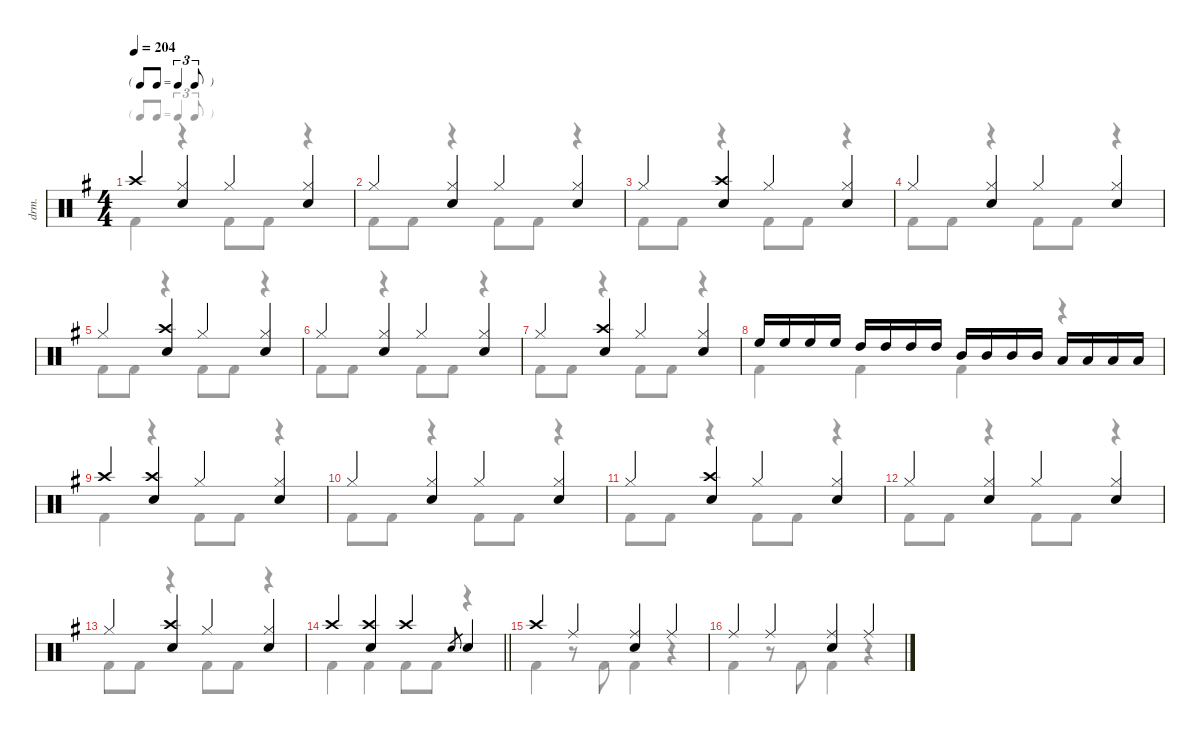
\defaultSystemsLayout 4
\hideDynamics
\bracketExtendMode nobrackets
\otherSystemsTrackNameOrientation horizontal
\track ("Lars Ulrich" "drm.") {defaultSystemsLayout 8 instrument percussion}
\staff {score}
\articulation defaults
\voice
\ts (4 4)
\tf triplet8th
\tempo 204
\clef neutral
\ks eminor "Crash high (hit)"{acc forcenatural}.4{dy f beam Up}
("Hi-Hat (closed)"{acc forcenatural} "Snare (hit) 2"{acc forcenatural}).4{beam Up} "Hi-Hat (closed)"{acc forcenatural}.4{beam Up} ("Hi-Hat (closed)"{acc forcenatural} "Snare (hit) 2"{acc forcenatural}).4{beam Up} |
"Hi-Hat (closed)"{acc forcenatural}.4{beam Up} ("Hi-Hat (closed)"{acc forcenatural} "Snare (hit) 2"{acc forcenatural}).4{beam Up} "Hi-Hat (closed)"{acc forcenatural}.4{beam Up} ("Hi-Hat (closed)"{acc forcenatural} "Snare (hit) 2"{acc forcenatural}).4{beam Up} |
"Hi-Hat (closed)"{acc forcenatural}.4{beam Up} ("Crash high (hit)"{acc forcenatural} "Snare (hit) 2"{acc forcenatural}).4{beam Up} "Hi-Hat (closed)"{acc forcenatural}.4{beam Up} ("Hi-Hat (closed)"{acc forcenatural} "Snare (hit) 2"{acc forcenatural}).4{beam Up} |
"Hi-Hat (closed)"{acc forcenatural}.4{beam Up} ("Hi-Hat (closed)"{acc forcenatural} "Snare (hit) 2"{acc forcenatural}).4{beam Up} "Hi-Hat (closed)"{acc forcenatural}.4{beam Up} ("Hi-Hat (closed)"{acc forcenatural} "Snare (hit) 2"{acc forcenatural}).4{beam Up} |
"Hi-Hat (closed)"{acc forcenatural}.4{beam Up} ("Crash high (hit)"{acc forcenatural} "Snare (hit) 2"{acc forcenatural}).4{beam Up} "Hi-Hat (closed)"{acc forcenatural}.4{beam Up} ("Hi-Hat (closed)"{acc forcenatural} "Snare (hit) 2"{acc forcenatural}).4{beam Up} |
"Hi-Hat (closed)"{acc forcenatural}.4{beam Up} ("Hi-Hat (closed)"{acc forcenatural} "Snare (hit) 2"{acc forcenatural}).4{beam Up} "Hi-Hat (closed)"{acc forcenatural}.4{beam Up} ("Hi-Hat (closed)"{acc forcenatural} "Snare (hit) 2"{acc forcenatural}).4{beam Up} |
"Hi-Hat (closed)"{acc forcenatural}.4{beam Up} ("Crash high (hit)"{acc forcenatural} "Snare (hit) 2"{acc forcenatural}).4{beam Up} "Hi-Hat (closed)"{acc forcenatural}.4{beam Up} ("Hi-Hat (closed)"{acc forcenatural} "Snare (hit) 2"{acc forcenatural}).4{beam Up} |
"High Floor Tom (hit)"{acc forcenatural}.16{beam Up} "High Floor Tom (hit)"{acc forcenatural}.16{beam Up} "High Floor Tom (hit)"{acc forcenatural}.16{beam Up} "High Floor Tom (hit)"{acc forcenatural}.16{beam Up} "High Tom (hit)"{acc forcenatural}.16{beam Up} "High Tom (hit)"{acc forcenatural}.16{beam Up} "High Tom (hit)"{acc forcenatural}.16{beam Up} "High Tom (hit)"{acc forcenatural}.16{beam Up} "Mid Tom (hit)"{acc forcenatural}.16{beam Up} "Mid Tom (hit)"{acc forcenatural}.16{beam Up} "Mid Tom (hit)"{acc forcenatural}.16{beam Up} "Mid Tom (hit)"{acc forcenatural}.16{beam Up} "Low Tom (hit)"{acc forcenatural}.16{beam Up} "Low Tom (hit)"{acc forcenatural}.16{beam Up} "Low Tom (hit)"{acc forcenatural}.16{beam Up} "Low Tom (hit)"{acc forcenatural}.16{beam Up} |
"Crash high (hit)"{acc forcenatural}.4{beam Up} ("Crash high (hit)"{acc forcenatural} "Snare (hit) 2"{acc forcenatural}).4{beam Up} "Hi-Hat (closed)"{acc forcenatural}.4{beam Up} ("Hi-Hat (closed)"{acc forcenatural} "Snare (hit) 2"{acc forcenatural}).4{beam Up} |
"Hi-Hat (closed)"{acc forcenatural}.4{beam Up} ("Hi-Hat (closed)"{acc forcenatural} "Snare (hit) 2"{acc forcenatural}).4{beam Up} "Hi-Hat (closed)"{acc forcenatural}.4{beam Up} ("Hi-Hat (closed)"{acc forcenatural} "Snare (hit) 2"{acc forcenatural}).4{beam Up} |
"Hi-Hat (closed)"{acc forcenatural}.4{beam Up} ("Crash high (hit)"{acc forcenatural} "Snare (hit) 2"{acc forcenatural}).4{beam Up} "Hi-Hat (closed)"{acc forcenatural}.4{beam Up} ("Hi-Hat (closed)"{acc forcenatural} "Snare (hit) 2"{acc forcenatural}).4{beam Up} |
"Hi-Hat (closed)"{acc forcenatural}.4{beam Up} ("Hi-Hat (closed)"{acc forcenatural} "Snare (hit) 2"{acc forcenatural}).4{beam Up} "Hi-Hat (closed)"{acc forcenatural}.4{beam Up} ("Hi-Hat (closed)"{acc forcenatural} "Snare (hit) 2"{acc forcenatural}).4{beam Up} |
"Hi-Hat (closed)"{acc forcenatural}.4{beam Up} ("Crash high (hit)"{acc forcenatural} "Snare (hit) 2"{acc forcenatural}).4{beam Up} "Hi-Hat (closed)"{acc forcenatural}.4{beam Up} ("Hi-Hat (closed)"{acc forcenatural} "Snare (hit) 2"{acc forcenatural}).4{beam Up} |
\barLineRight lightlight "Crash high (hit)"{acc forcenatural}.4{beam Up}
("Crash high (hit)"{acc forcenatural} "Snare (hit) 2"{acc forcenatural}).4{beam Up} "Crash high (hit)"{acc forcenatural}.4{beam Up} "Snare (hit) 2"{acc forcenatural}.8{gr dy mf beam Up} "Snare (hit) 2"{acc forcenatural}.4{dy f beam Up} |
"Crash high (hit)"{acc forcenatural}.4{beam Up} "Ride (middle)"{acc forcenatural}.4{beam Up} ("Ride (middle)"{acc forcenatural} "Snare (hit) 2"{acc forcenatural}).4{beam Up} "Ride (middle)"{acc forcenatural}.4{beam Up} |
"Ride (middle)"{acc forcenatural}.4{beam Up} "Ride (middle)"{acc forcenatural}.4{beam Up} ("Ride (middle)"{acc forcenatural} "Snare (hit) 2"{acc forcenatural}).4{beam Up} "Ride (middle)"{acc forcenatural}.4{beam Up}
\voice
\clef neutral
\ottava regular
\simile none
\ks eminor "Kick (hit) 2"{acc forcenatural}.4{dy f beam Down}
r.4{beam Down} "Kick (hit) 2"{acc forcenatural}.8{beam Down} "Kick (hit) 2"{acc forcenatural}.8{beam Down} r.4{beam Down} |
"Kick (hit) 2"{acc forcenatural}.8{beam Down} "Kick (hit) 2"{acc forcenatural}.8{beam Down} r.4{beam Down} "Kick (hit) 2"{acc forcenatural}.8{beam Down} "Kick (hit) 2"{acc forcenatural}.8{beam Down} r.4{beam Down} |
"Kick (hit) 2"{acc forcenatural}.8{beam Down} "Kick (hit) 2"{acc forcenatural}.8{beam Down} r.4{beam Down} "Kick (hit) 2"{acc forcenatural}.8{beam Down} "Kick (hit) 2"{acc forcenatural}.8{beam Down} r.4{beam Down} |
"Kick (hit) 2"{acc forcenatural}.8{beam Down} "Kick (hit) 2"{acc forcenatural}.8{beam Down} r.4{beam Down} "Kick (hit) 2"{acc forcenatural}.8{beam Down} "Kick (hit) 2"{acc forcenatural}.8{beam Down} r.4{beam Down} |
"Kick (hit) 2"{acc forcenatural}.8{beam Down} "Kick (hit) 2"{acc forcenatural}.8{beam Down} r.4{beam Down} "Kick (hit) 2"{acc forcenatural}.8{beam Down} "Kick (hit) 2"{acc forcenatural}.8{beam Down} r.4{beam Down} |
"Kick (hit) 2"{acc forcenatural}.8{beam Down} "Kick (hit) 2"{acc forcenatural}.8{beam Down} r.4{beam Down} "Kick (hit) 2"{acc forcenatural}.8{beam Down} "Kick (hit) 2"{acc forcenatural}.8{beam Down} r.4{beam Down} |
"Kick (hit) 2"{acc forcenatural}.8{beam Down} "Kick (hit) 2"{acc forcenatural}.8{beam Down} r.4{beam Down} "Kick (hit) 2"{acc forcenatural}.8{beam Down} "Kick (hit) 2"{acc forcenatural}.8{beam Down} r.4{beam Down} |
"Kick (hit) 2"{acc forcenatural}.4{beam Down} "Kick (hit) 2"{acc forcenatural}.4{beam Down} "Kick (hit) 2"{acc forcenatural}.4{beam Down} r.4{beam Down} |
"Kick (hit) 2"{acc forcenatural}.4{beam Down} r.4{beam Down} "Kick (hit) 2"{acc forcenatural}.8{beam Down} "Kick (hit) 2"{acc forcenatural}.8{beam Down} r.4{beam Down} |
"Kick (hit) 2"{acc forcenatural}.8{beam Down} "Kick (hit) 2"{acc forcenatural}.8{beam Down} r.4{beam Down} "Kick (hit) 2"{acc forcenatural}.8{beam Down} "Kick (hit) 2"{acc forcenatural}.8{beam Down} r.4{beam Down} |
"Kick (hit) 2"{acc forcenatural}.8{beam Down} "Kick (hit) 2"{acc forcenatural}.8{beam Down} r.4{beam Down} "Kick (hit) 2"{acc forcenatural}.8{beam Down} "Kick (hit) 2"{acc forcenatural}.8{beam Down} r.4{beam Down} |
"Kick (hit) 2"{acc forcenatural}.8{beam Down} "Kick (hit) 2"{acc forcenatural}.8{beam Down} r.4{beam Down} "Kick (hit) 2"{acc forcenatural}.8{beam Down} "Kick (hit) 2"{acc forcenatural}.8{beam Down} r.4{beam Down} |
"Kick (hit) 2"{acc forcenatural}.8{beam Down} "Kick (hit) 2"{acc forcenatural}.8{beam Down} r.4{beam Down} "Kick (hit) 2"{acc forcenatural}.8{beam Down} "Kick (hit) 2"{acc forcenatural}.8{beam Down} r.4{beam Down} |
\barLineRight lightlight "Kick (hit) 2"{acc forcenatural}.4{beam Down} "Kick (hit) 2"{acc forcenatural}.4{beam Down} "Kick (hit) 2"{acc forcenatural}.8{beam Down} "Kick (hit) 2"{acc forcenatural}.8{beam Down}
r.4{beam Down} |
"Kick (hit) 2"{acc forcenatural}.4{beam Down} r.8{beam Down} "Kick (hit) 2"{acc forcenatural}.8{beam Down} "Kick (hit) 2"{acc forcenatural}.4{beam Down} r.4{beam Down} |
"Kick (hit) 2"{acc forcenatural}.4{beam Down} r.8{beam Down} "Kick (hit) 2"{acc forcenatural}.8{beam Down} "Kick (hit) 2"{acc forcenatural}.4{beam Down} r.4{beam Down}
